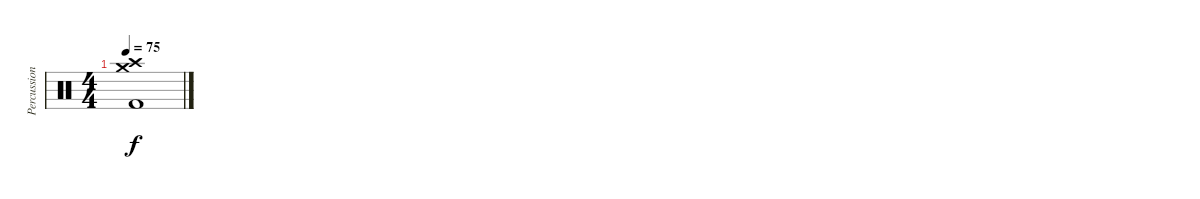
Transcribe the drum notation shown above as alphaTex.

\track ("Percussion" "Percussion") {instrument percussion}
\staff {score}
\articulation defaults
\ts (4 4)
\tempo 75
\clef neutral
\ks c
("Crash medium (hit)" "Crash high (hit)" "Kick (hit) 2").1{dy f}
